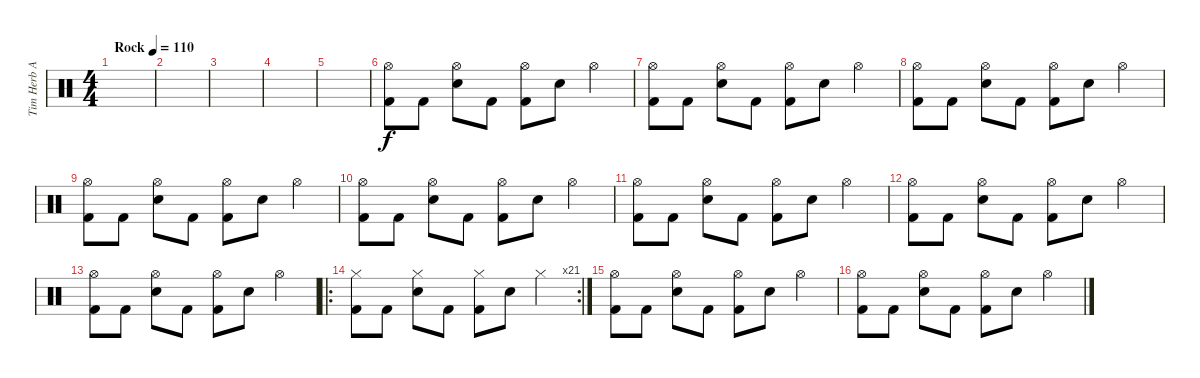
\track ("Tim Herb Alexander" "Tim Herb A") {instrument percussion}
\staff {score}
\articulation defaults
\ts (4 4)
\tempo (110 "Rock")
\clef neutral
\ks c
|
|
|
|
|
("Hi-Hat (open)" "Kick (hit) 2").8 "Kick (hit) 2".8 ("Hi-Hat (open)" "Snare (hit) 2").8 "Kick (hit) 2".8 ("Hi-Hat (open)" "Kick (hit) 2").8 "Snare (hit) 2".8 "Hi-Hat (open)".4 |
("Hi-Hat (open)" "Kick (hit) 2").8 "Kick (hit) 2".8 ("Hi-Hat (open)" "Snare (hit) 2").8 "Kick (hit) 2".8 ("Hi-Hat (open)" "Kick (hit) 2").8 "Snare (hit) 2".8 "Hi-Hat (open)".4 |
("Hi-Hat (open)" "Kick (hit) 2").8 "Kick (hit) 2".8 ("Hi-Hat (open)" "Snare (hit) 2").8 "Kick (hit) 2".8 ("Hi-Hat (open)" "Kick (hit) 2").8 "Snare (hit) 2".8 "Hi-Hat (open)".4 |
("Hi-Hat (open)" "Kick (hit) 2").8 "Kick (hit) 2".8 ("Hi-Hat (open)" "Snare (hit) 2").8 "Kick (hit) 2".8 ("Hi-Hat (open)" "Kick (hit) 2").8 "Snare (hit) 2".8 "Hi-Hat (open)".4 |
("Hi-Hat (open)" "Kick (hit) 2").8 "Kick (hit) 2".8 ("Hi-Hat (open)" "Snare (hit) 2").8 "Kick (hit) 2".8 ("Hi-Hat (open)" "Kick (hit) 2").8 "Snare (hit) 2".8 "Hi-Hat (open)".4 |
("Hi-Hat (open)" "Kick (hit) 2").8 "Kick (hit) 2".8 ("Hi-Hat (open)" "Snare (hit) 2").8 "Kick (hit) 2".8 ("Hi-Hat (open)" "Kick (hit) 2").8 "Snare (hit) 2".8 "Hi-Hat (open)".4 |
("Hi-Hat (open)" "Kick (hit) 2").8 "Kick (hit) 2".8 ("Hi-Hat (open)" "Snare (hit) 2").8 "Kick (hit) 2".8 ("Hi-Hat (open)" "Kick (hit) 2").8 "Snare (hit) 2".8 "Hi-Hat (open)".4 |
("Hi-Hat (open)" "Kick (hit) 2").8 "Kick (hit) 2".8 ("Hi-Hat (open)" "Snare (hit) 2").8 "Kick (hit) 2".8 ("Hi-Hat (open)" "Kick (hit) 2").8 "Snare (hit) 2".8 "Hi-Hat (open)".4 |
\ro
\rc 21
("Hi-Hat (closed)" "Kick (hit) 2").8 "Kick (hit) 2".8 ("Hi-Hat (closed)" "Snare (hit) 2").8 "Kick (hit) 2".8 ("Hi-Hat (closed)" "Kick (hit) 2").8 "Snare (hit) 2".8 "Hi-Hat (closed)".4 |
("Hi-Hat (open)" "Kick (hit) 2").8 "Kick (hit) 2".8 ("Hi-Hat (open)" "Snare (hit) 2").8 "Kick (hit) 2".8 ("Hi-Hat (open)" "Kick (hit) 2").8 "Snare (hit) 2".8 "Hi-Hat (open)".4 |
("Hi-Hat (open)" "Kick (hit) 2").8 "Kick (hit) 2".8 ("Hi-Hat (open)" "Snare (hit) 2").8 "Kick (hit) 2".8 ("Hi-Hat (open)" "Kick (hit) 2").8 "Snare (hit) 2".8 "Hi-Hat (open)".4
